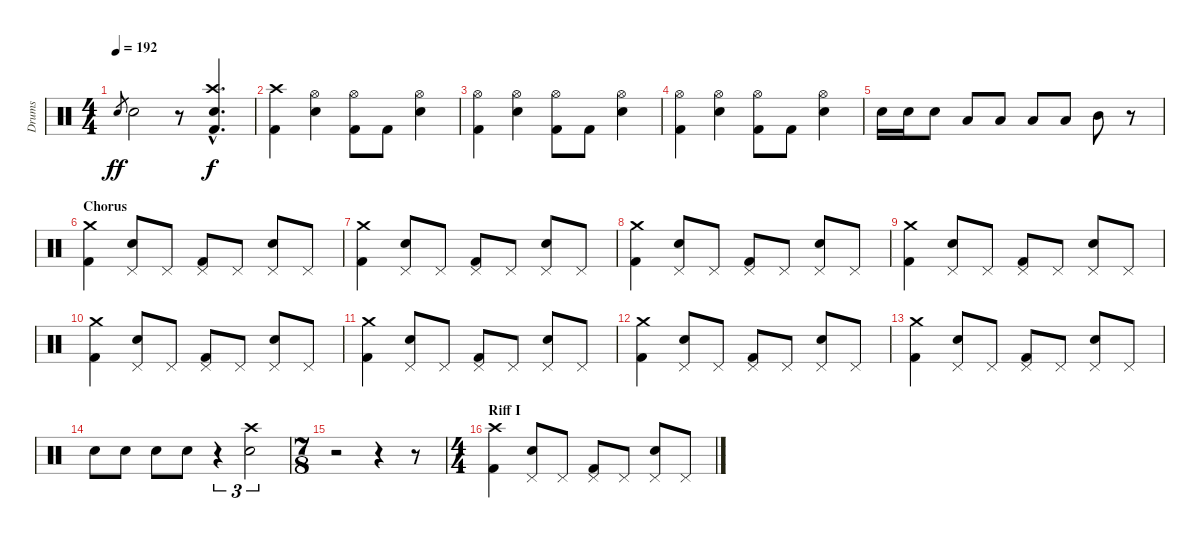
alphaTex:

\track ("Drums" "Drums") {instrument percussion}
\staff {score}
\articulation defaults
\ts (4 4)
\tempo 192
\clef neutral
\ks c "Electric Snare (hit)".8{gr dy ff} "Electric Snare (hit)".2
r.8 ("Crash high (hit)"{hac} "Electric Snare (hit)"{hac} "Kick (hit) 2"{hac}).4{d dy f} |
("Crash high (hit)" "Kick (hit) 2").4 ("Hi-Hat (open)" "Electric Snare (hit)").4 ("Hi-Hat (open)" "Kick (hit) 2").8 "Kick (hit) 2".8 ("Hi-Hat (open)" "Electric Snare (hit)").4 |
("Hi-Hat (open)" "Kick (hit) 2").4 ("Hi-Hat (open)" "Electric Snare (hit)").4 ("Hi-Hat (open)" "Kick (hit) 2").8 "Kick (hit) 2".8 ("Hi-Hat (open)" "Electric Snare (hit)").4 |
("Hi-Hat (open)" "Kick (hit) 2").4 ("Hi-Hat (open)" "Electric Snare (hit)").4 ("Hi-Hat (open)" "Kick (hit) 2").8 "Kick (hit) 2".8 ("Hi-Hat (open)" "Electric Snare (hit)").4 |
"Electric Snare (hit)".16 "Electric Snare (hit)".16 "Electric Snare (hit)".8 "Low Tom (hit)".8 "Low Tom (hit)".8 "Low Tom (hit)".8 "Low Tom (hit)".8 "Mid Tom (hit)".8 r.8 |
\section ("" "Chorus")
("Crash medium (hit)" "Kick (hit) 2").4 ("Pedal Hi-Hat (hit)" "Electric Snare (hit)").8 "Pedal Hi-Hat (hit)".8 ("Pedal Hi-Hat (hit)" "Kick (hit) 2").8 "Pedal Hi-Hat (hit)".8 ("Pedal Hi-Hat (hit)" "Electric Snare (hit)").8 "Pedal Hi-Hat (hit)".8 |
("Crash medium (hit)" "Kick (hit) 2").4 ("Pedal Hi-Hat (hit)" "Electric Snare (hit)").8 "Pedal Hi-Hat (hit)".8 ("Pedal Hi-Hat (hit)" "Kick (hit) 2").8 "Pedal Hi-Hat (hit)".8 ("Pedal Hi-Hat (hit)" "Electric Snare (hit)").8 "Pedal Hi-Hat (hit)".8 |
("Crash medium (hit)" "Kick (hit) 2").4 ("Pedal Hi-Hat (hit)" "Electric Snare (hit)").8 "Pedal Hi-Hat (hit)".8 ("Pedal Hi-Hat (hit)" "Kick (hit) 2").8 "Pedal Hi-Hat (hit)".8 ("Pedal Hi-Hat (hit)" "Electric Snare (hit)").8 "Pedal Hi-Hat (hit)".8 |
("Crash medium (hit)" "Kick (hit) 2").4 ("Pedal Hi-Hat (hit)" "Electric Snare (hit)").8 "Pedal Hi-Hat (hit)".8 ("Pedal Hi-Hat (hit)" "Kick (hit) 2").8 "Pedal Hi-Hat (hit)".8 ("Pedal Hi-Hat (hit)" "Electric Snare (hit)").8 "Pedal Hi-Hat (hit)".8 |
("Crash medium (hit)" "Kick (hit) 2").4 ("Pedal Hi-Hat (hit)" "Electric Snare (hit)").8 "Pedal Hi-Hat (hit)".8 ("Pedal Hi-Hat (hit)" "Kick (hit) 2").8 "Pedal Hi-Hat (hit)".8 ("Pedal Hi-Hat (hit)" "Electric Snare (hit)").8 "Pedal Hi-Hat (hit)".8 |
("Crash medium (hit)" "Kick (hit) 2").4 ("Pedal Hi-Hat (hit)" "Electric Snare (hit)").8 "Pedal Hi-Hat (hit)".8 ("Pedal Hi-Hat (hit)" "Kick (hit) 2").8 "Pedal Hi-Hat (hit)".8 ("Pedal Hi-Hat (hit)" "Electric Snare (hit)").8 "Pedal Hi-Hat (hit)".8 |
("Crash medium (hit)" "Kick (hit) 2").4 ("Pedal Hi-Hat (hit)" "Electric Snare (hit)").8 "Pedal Hi-Hat (hit)".8 ("Pedal Hi-Hat (hit)" "Kick (hit) 2").8 "Pedal Hi-Hat (hit)".8 ("Pedal Hi-Hat (hit)" "Electric Snare (hit)").8 "Pedal Hi-Hat (hit)".8 |
("Crash medium (hit)" "Kick (hit) 2").4 ("Pedal Hi-Hat (hit)" "Electric Snare (hit)").8 "Pedal Hi-Hat (hit)".8 ("Pedal Hi-Hat (hit)" "Kick (hit) 2").8 "Pedal Hi-Hat (hit)".8 ("Pedal Hi-Hat (hit)" "Electric Snare (hit)").8 "Pedal Hi-Hat (hit)".8 |
"Electric Snare (hit)".8 "Electric Snare (hit)".8 "Electric Snare (hit)".8 "Electric Snare (hit)".8 r.4{tu (3 2)} ("Crash high (hit)" "Electric Snare (hit)").2{tu (3 2)} |
\ts (7 8)
r.2 r.4 r.8 |
\ts (4 4)
\section ("" "Riff I")
("Crash high (hit)" "Kick (hit) 2").4 ("Pedal Hi-Hat (hit)" "Electric Snare (hit)").8 "Pedal Hi-Hat (hit)".8 ("Pedal Hi-Hat (hit)" "Kick (hit) 2").8 "Pedal Hi-Hat (hit)".8 ("Pedal Hi-Hat (hit)" "Electric Snare (hit)").8 "Pedal Hi-Hat (hit)".8
